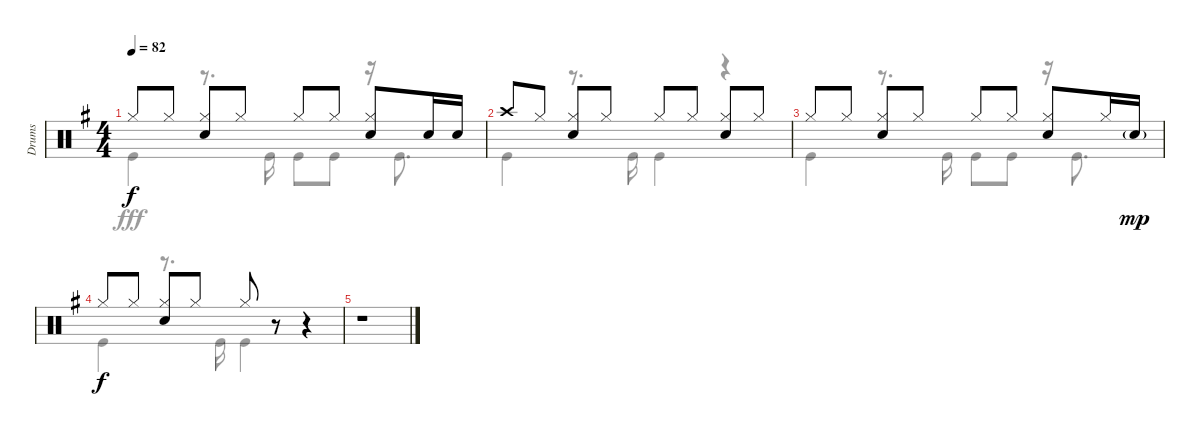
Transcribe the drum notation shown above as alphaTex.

\track ("Drums" "Drums") {instrument percussion}
\staff {score}
\articulation defaults
\voice
\ts (4 4)
\tempo 82
\clef neutral
\ks g "Hi-Hat (closed)".8{dy f} "Hi-Hat (closed)".8
("Hi-Hat (closed)" "Snare (hit) 2").8 "Hi-Hat (closed)".8 "Hi-Hat (closed)".8 "Hi-Hat (closed)".8 ("Hi-Hat (closed)" "Snare (hit) 2").8 "Snare (hit) 2".16 "Snare (hit) 2".16 |
"Crash high (hit)".8 "Hi-Hat (closed)".8 ("Hi-Hat (closed)" "Snare (hit) 2").8 "Hi-Hat (closed)".8 "Hi-Hat (closed)".8 "Hi-Hat (closed)".8 ("Hi-Hat (closed)" "Snare (hit) 2").8 "Hi-Hat (closed)".8 |
"Hi-Hat (closed)".8 "Hi-Hat (closed)".8 ("Hi-Hat (closed)" "Snare (hit) 2").8 "Hi-Hat (closed)".8 "Hi-Hat (closed)".8 "Hi-Hat (closed)".8 ("Hi-Hat (closed)" "Snare (hit) 2").8 "Hi-Hat (closed)".16 "Snare (hit) 2"{g}.16{dy mp} |
"Hi-Hat (closed)".8{dy f} "Hi-Hat (closed)".8 ("Hi-Hat (closed)" "Snare (hit) 2").8 "Hi-Hat (closed)".8 "Hi-Hat (closed)".8 r.8 r.4 |
r.1
\voice
\clef neutral
\ottava regular
\simile none
\ks g "Kick (hit)".4{dy fff}
r.8{d} "Kick (hit)".16 "Kick (hit)".8 "Kick (hit)".8 r.16 "Kick (hit)".8{d} |
"Kick (hit)".4 r.8{d} "Kick (hit)".16 "Kick (hit)".4 r.4 |
"Kick (hit)".4 r.8{d} "Kick (hit)".16 "Kick (hit)".8 "Kick (hit)".8 r.16 "Kick (hit)".8{d} |
"Kick (hit)".4 r.8{d} "Kick (hit)".16 "Kick (hit)".4 r.4 |
r.1
